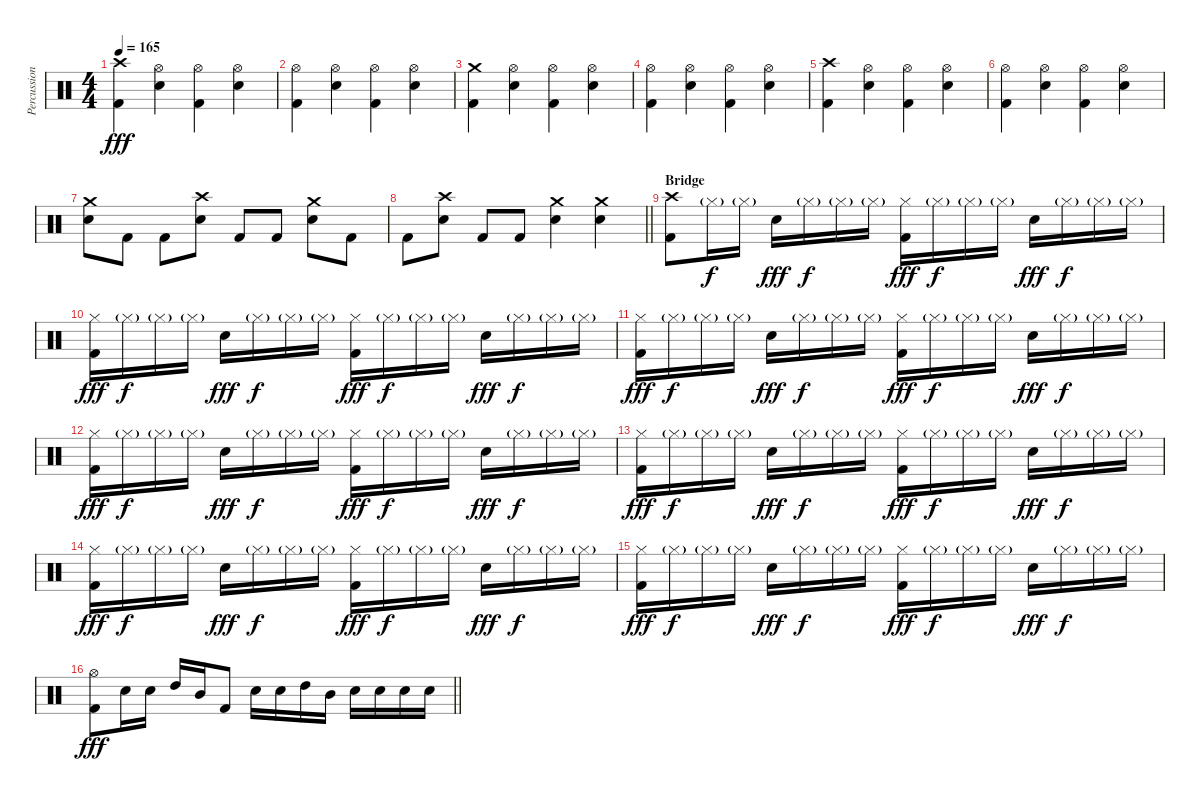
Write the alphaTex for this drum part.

\track ("Percussion" "Percussion") {instrument percussion}
\staff {score}
\articulation defaults
\ts (4 4)
\tempo 165
\clef neutral
\ks c
("Crash high (hit)" "Kick (hit) 2").4{dy fff} ("Hi-Hat (open)" "Electric Snare (hit)").4 ("Hi-Hat (open)" "Kick (hit) 2").4 ("Hi-Hat (open)" "Electric Snare (hit)").4 |
("Hi-Hat (open)" "Kick (hit) 2").4 ("Hi-Hat (open)" "Electric Snare (hit)").4 ("Hi-Hat (open)" "Kick (hit) 2").4 ("Hi-Hat (open)" "Electric Snare (hit)").4 |
("Crash medium (hit)" "Kick (hit) 2").4 ("Hi-Hat (open)" "Electric Snare (hit)").4 ("Hi-Hat (open)" "Kick (hit) 2").4 ("Hi-Hat (open)" "Electric Snare (hit)").4 |
("Hi-Hat (open)" "Kick (hit) 2").4 ("Hi-Hat (open)" "Electric Snare (hit)").4 ("Hi-Hat (open)" "Kick (hit) 2").4 ("Hi-Hat (open)" "Electric Snare (hit)").4 |
("Crash high (hit)" "Kick (hit) 2").4 ("Hi-Hat (open)" "Electric Snare (hit)").4 ("Hi-Hat (open)" "Kick (hit) 2").4 ("Hi-Hat (open)" "Electric Snare (hit)").4 |
("Hi-Hat (open)" "Kick (hit) 2").4 ("Hi-Hat (open)" "Electric Snare (hit)").4 ("Hi-Hat (open)" "Kick (hit) 2").4 ("Hi-Hat (open)" "Electric Snare (hit)").4 |
("Crash medium (hit)" "Electric Snare (hit)").8 "Kick (hit) 2".8 "Kick (hit) 2".8 ("Crash high (hit)" "Electric Snare (hit)").8 "Kick (hit) 2".8 "Kick (hit) 2".8 ("Crash medium (hit)" "Electric Snare (hit)").8 "Kick (hit) 2".8 |
\barLineRight lightlight "Kick (hit) 2".8
("Crash high (hit)" "Electric Snare (hit)").8 "Kick (hit) 2".8 "Kick (hit) 2".8 ("Crash medium (hit)" "Electric Snare (hit)").4 ("Crash medium (hit)" "Electric Snare (hit)").4 |
\section ("" "Bridge")
("Crash high (hit)" "Kick (hit) 2").8 "Hi-Hat (closed)"{g}.16{dy f} "Hi-Hat (closed)"{g}.16 "Electric Snare (hit)".16{dy fff} "Hi-Hat (closed)"{g}.16{dy f} "Hi-Hat (closed)"{g}.16 "Hi-Hat (closed)"{g}.16 ("Hi-Hat (closed)" "Kick (hit) 2").16{dy fff} "Hi-Hat (closed)"{g}.16{dy f} "Hi-Hat (closed)"{g}.16 "Hi-Hat (closed)"{g}.16 "Electric Snare (hit)".16{dy fff} "Hi-Hat (closed)"{g}.16{dy f} "Hi-Hat (closed)"{g}.16 "Hi-Hat (closed)"{g}.16 |
("Hi-Hat (closed)" "Kick (hit) 2").16{dy fff} "Hi-Hat (closed)"{g}.16{dy f} "Hi-Hat (closed)"{g}.16 "Hi-Hat (closed)"{g}.16 "Electric Snare (hit)".16{dy fff} "Hi-Hat (closed)"{g}.16{dy f} "Hi-Hat (closed)"{g}.16 "Hi-Hat (closed)"{g}.16 ("Hi-Hat (closed)" "Kick (hit) 2").16{dy fff} "Hi-Hat (closed)"{g}.16{dy f} "Hi-Hat (closed)"{g}.16 "Hi-Hat (closed)"{g}.16 "Electric Snare (hit)".16{dy fff} "Hi-Hat (closed)"{g}.16{dy f} "Hi-Hat (closed)"{g}.16 "Hi-Hat (closed)"{g}.16 |
("Hi-Hat (closed)" "Kick (hit) 2").16{dy fff} "Hi-Hat (closed)"{g}.16{dy f} "Hi-Hat (closed)"{g}.16 "Hi-Hat (closed)"{g}.16 "Electric Snare (hit)".16{dy fff} "Hi-Hat (closed)"{g}.16{dy f} "Hi-Hat (closed)"{g}.16 "Hi-Hat (closed)"{g}.16 ("Hi-Hat (closed)" "Kick (hit) 2").16{dy fff} "Hi-Hat (closed)"{g}.16{dy f} "Hi-Hat (closed)"{g}.16 "Hi-Hat (closed)"{g}.16 "Electric Snare (hit)".16{dy fff} "Hi-Hat (closed)"{g}.16{dy f} "Hi-Hat (closed)"{g}.16 "Hi-Hat (closed)"{g}.16 |
("Hi-Hat (closed)" "Kick (hit) 2").16{dy fff} "Hi-Hat (closed)"{g}.16{dy f} "Hi-Hat (closed)"{g}.16 "Hi-Hat (closed)"{g}.16 "Electric Snare (hit)".16{dy fff} "Hi-Hat (closed)"{g}.16{dy f} "Hi-Hat (closed)"{g}.16 "Hi-Hat (closed)"{g}.16 ("Hi-Hat (closed)" "Kick (hit) 2").16{dy fff} "Hi-Hat (closed)"{g}.16{dy f} "Hi-Hat (closed)"{g}.16 "Hi-Hat (closed)"{g}.16 "Electric Snare (hit)".16{dy fff} "Hi-Hat (closed)"{g}.16{dy f} "Hi-Hat (closed)"{g}.16 "Hi-Hat (closed)"{g}.16 |
("Hi-Hat (closed)" "Kick (hit) 2").16{dy fff} "Hi-Hat (closed)"{g}.16{dy f} "Hi-Hat (closed)"{g}.16 "Hi-Hat (closed)"{g}.16 "Electric Snare (hit)".16{dy fff} "Hi-Hat (closed)"{g}.16{dy f} "Hi-Hat (closed)"{g}.16 "Hi-Hat (closed)"{g}.16 ("Hi-Hat (closed)" "Kick (hit) 2").16{dy fff} "Hi-Hat (closed)"{g}.16{dy f} "Hi-Hat (closed)"{g}.16 "Hi-Hat (closed)"{g}.16 "Electric Snare (hit)".16{dy fff} "Hi-Hat (closed)"{g}.16{dy f} "Hi-Hat (closed)"{g}.16 "Hi-Hat (closed)"{g}.16 |
("Hi-Hat (closed)" "Kick (hit) 2").16{dy fff} "Hi-Hat (closed)"{g}.16{dy f} "Hi-Hat (closed)"{g}.16 "Hi-Hat (closed)"{g}.16 "Electric Snare (hit)".16{dy fff} "Hi-Hat (closed)"{g}.16{dy f} "Hi-Hat (closed)"{g}.16 "Hi-Hat (closed)"{g}.16 ("Hi-Hat (closed)" "Kick (hit) 2").16{dy fff} "Hi-Hat (closed)"{g}.16{dy f} "Hi-Hat (closed)"{g}.16 "Hi-Hat (closed)"{g}.16 "Electric Snare (hit)".16{dy fff} "Hi-Hat (closed)"{g}.16{dy f} "Hi-Hat (closed)"{g}.16 "Hi-Hat (closed)"{g}.16 |
("Hi-Hat (closed)" "Kick (hit) 2").16{dy fff} "Hi-Hat (closed)"{g}.16{dy f} "Hi-Hat (closed)"{g}.16 "Hi-Hat (closed)"{g}.16 "Electric Snare (hit)".16{dy fff} "Hi-Hat (closed)"{g}.16{dy f} "Hi-Hat (closed)"{g}.16 "Hi-Hat (closed)"{g}.16 ("Hi-Hat (closed)" "Kick (hit) 2").16{dy fff} "Hi-Hat (closed)"{g}.16{dy f} "Hi-Hat (closed)"{g}.16 "Hi-Hat (closed)"{g}.16 "Electric Snare (hit)".16{dy fff} "Hi-Hat (closed)"{g}.16{dy f} "Hi-Hat (closed)"{g}.16 "Hi-Hat (closed)"{g}.16 |
\barLineRight lightlight
("Hi-Hat (open)" "Kick (hit) 2").8{dy fff} "Electric Snare (hit)".16 "Electric Snare (hit)".16 "High Tom (hit)".16 "Mid Tom (hit)".16 "Kick (hit) 2".8 "Electric Snare (hit)".16 "Electric Snare (hit)".16 "High Tom (hit)".16 "Mid Tom (hit)".16 "Electric Snare (hit)".16 "Electric Snare (hit)".16 "Electric Snare (hit)".16 "Electric Snare (hit)".16
